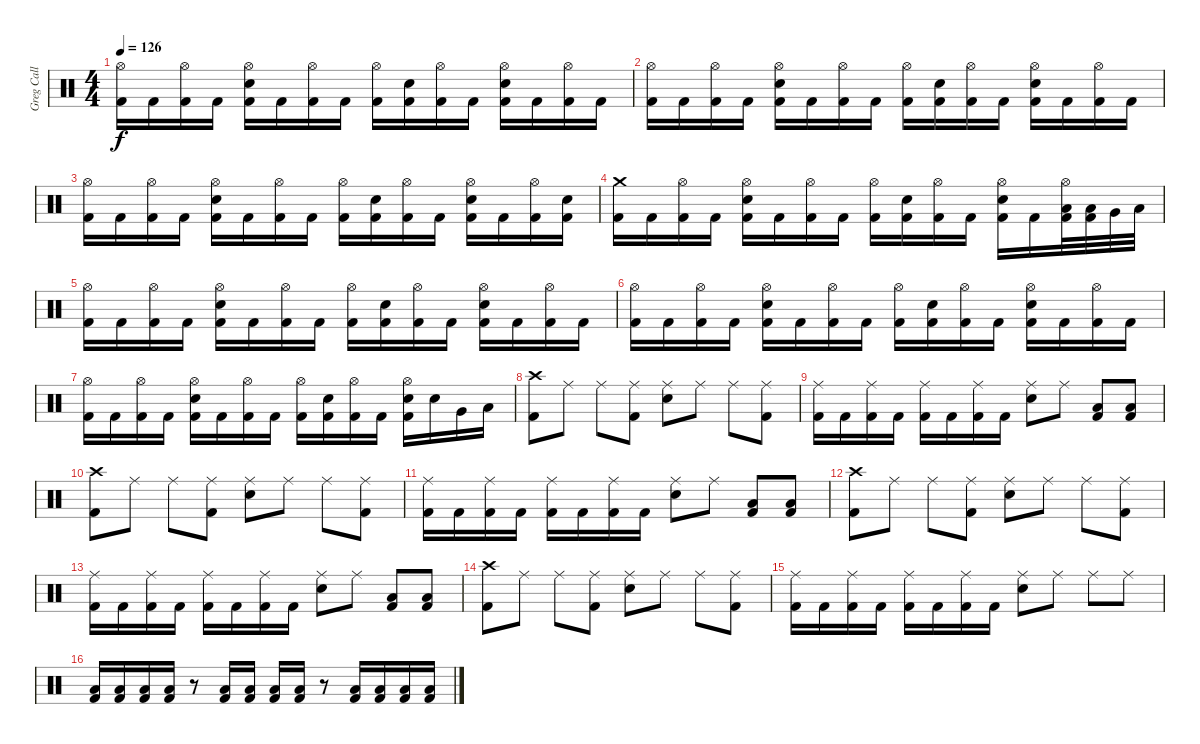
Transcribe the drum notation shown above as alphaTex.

\track ("Greg Call (Drums)" "Greg Call ") {instrument percussion}
\staff {score}
\articulation defaults
\ts (4 4)
\tempo 126
\clef neutral
\ks c
("Hi-Hat (open)" "Kick (hit) 2").16{dy f} "Kick (hit) 2".16 ("Hi-Hat (open)" "Kick (hit) 2").16 "Kick (hit) 2".16 ("Hi-Hat (open)" "Snare (hit) 2" "Kick (hit) 2").16 "Kick (hit) 2".16 ("Hi-Hat (open)" "Kick (hit) 2").16 "Kick (hit) 2".16 ("Hi-Hat (open)" "Kick (hit) 2").16 ("Snare (hit) 2" "Kick (hit) 2").16 ("Hi-Hat (open)" "Kick (hit) 2").16 "Kick (hit) 2".16 ("Hi-Hat (open)" "Snare (hit) 2" "Kick (hit) 2").16 "Kick (hit) 2".16 ("Hi-Hat (open)" "Kick (hit) 2").16 "Kick (hit) 2".16 |
("Hi-Hat (open)" "Kick (hit) 2").16 "Kick (hit) 2".16 ("Hi-Hat (open)" "Kick (hit) 2").16 "Kick (hit) 2".16 ("Hi-Hat (open)" "Snare (hit) 2" "Kick (hit) 2").16 "Kick (hit) 2".16 ("Hi-Hat (open)" "Kick (hit) 2").16 "Kick (hit) 2".16 ("Hi-Hat (open)" "Kick (hit) 2").16 ("Snare (hit) 2" "Kick (hit) 2").16 ("Hi-Hat (open)" "Kick (hit) 2").16 "Kick (hit) 2".16 ("Hi-Hat (open)" "Snare (hit) 2" "Kick (hit) 2").16 "Kick (hit) 2".16 ("Hi-Hat (open)" "Kick (hit) 2").16 "Kick (hit) 2".16 |
("Hi-Hat (open)" "Kick (hit) 2").16 "Kick (hit) 2".16 ("Hi-Hat (open)" "Kick (hit) 2").16 "Kick (hit) 2".16 ("Hi-Hat (open)" "Snare (hit) 2" "Kick (hit) 2").16 "Kick (hit) 2".16 ("Hi-Hat (open)" "Kick (hit) 2").16 "Kick (hit) 2".16 ("Hi-Hat (open)" "Kick (hit) 2").16 ("Snare (hit) 2" "Kick (hit) 2").16 ("Hi-Hat (open)" "Kick (hit) 2").16 "Kick (hit) 2".16 ("Hi-Hat (open)" "Snare (hit) 2" "Kick (hit) 2").16 "Kick (hit) 2".16 ("Hi-Hat (open)" "Kick (hit) 2").16 ("Snare (hit) 2" "Kick (hit) 2").16 |
("Crash medium (hit)" "Kick (hit) 2").16 "Kick (hit) 2".16 ("Hi-Hat (open)" "Kick (hit) 2").16 "Kick (hit) 2".16 ("Hi-Hat (open)" "Snare (hit) 2" "Kick (hit) 2").16 "Kick (hit) 2".16 ("Hi-Hat (open)" "Kick (hit) 2").16 "Kick (hit) 2".16 ("Hi-Hat (open)" "Kick (hit) 2").16 ("Snare (hit) 2" "Kick (hit) 2").16 ("Hi-Hat (open)" "Kick (hit) 2").16 "Kick (hit) 2".16 ("Hi-Hat (open)" "Snare (hit) 2" "Kick (hit) 2").16 "Kick (hit) 2".16 ("Hi-Hat (open)" "Low Tom (hit)" "Kick (hit) 2").32 ("Low Tom (hit)" "Kick (hit) 2").32 "Very Low Tom (hit)".32 "Low Floor Tom (hit)".32 |
("Hi-Hat (open)" "Kick (hit) 2").16 "Kick (hit) 2".16 ("Hi-Hat (open)" "Kick (hit) 2").16 "Kick (hit) 2".16 ("Hi-Hat (open)" "Snare (hit) 2" "Kick (hit) 2").16 "Kick (hit) 2".16 ("Hi-Hat (open)" "Kick (hit) 2").16 "Kick (hit) 2".16 ("Hi-Hat (open)" "Kick (hit) 2").16 ("Snare (hit) 2" "Kick (hit) 2").16 ("Hi-Hat (open)" "Kick (hit) 2").16 "Kick (hit) 2".16 ("Hi-Hat (open)" "Snare (hit) 2" "Kick (hit) 2").16 "Kick (hit) 2".16 ("Hi-Hat (open)" "Kick (hit) 2").16 "Kick (hit) 2".16 |
("Hi-Hat (open)" "Kick (hit) 2").16 "Kick (hit) 2".16 ("Hi-Hat (open)" "Kick (hit) 2").16 "Kick (hit) 2".16 ("Hi-Hat (open)" "Snare (hit) 2" "Kick (hit) 2").16 "Kick (hit) 2".16 ("Hi-Hat (open)" "Kick (hit) 2").16 "Kick (hit) 2".16 ("Hi-Hat (open)" "Kick (hit) 2").16 ("Snare (hit) 2" "Kick (hit) 2").16 ("Hi-Hat (open)" "Kick (hit) 2").16 "Kick (hit) 2".16 ("Hi-Hat (open)" "Snare (hit) 2" "Kick (hit) 2").16 "Kick (hit) 2".16 ("Hi-Hat (open)" "Kick (hit) 2").16 "Kick (hit) 2".16 |
("Hi-Hat (open)" "Kick (hit) 2").16 "Kick (hit) 2".16 ("Hi-Hat (open)" "Kick (hit) 2").16 "Kick (hit) 2".16 ("Hi-Hat (open)" "Snare (hit) 2" "Kick (hit) 2").16 "Kick (hit) 2".16 ("Hi-Hat (open)" "Kick (hit) 2").16 "Kick (hit) 2".16 ("Hi-Hat (open)" "Kick (hit) 2").16 ("Snare (hit) 2" "Kick (hit) 2").16 ("Hi-Hat (open)" "Kick (hit) 2").16 "Kick (hit) 2".16 ("Hi-Hat (open)" "Snare (hit) 2" "Kick (hit) 2").16 "Snare (hit) 2".16 "Very Low Tom (hit)".16 "Low Floor Tom (hit)".16 |
("Crash high (hit)" "Kick (hit) 2").8 "Ride (middle)".8 "Ride (middle)".8 ("Ride (middle)" "Kick (hit) 2").8 ("Ride (middle)" "Snare (hit) 2").8 "Ride (middle)".8 "Ride (middle)".8 ("Ride (middle)" "Kick (hit) 2").8 |
("Ride (middle)" "Kick (hit) 2").16 "Kick (hit) 2".16 ("Ride (middle)" "Kick (hit) 2").16 "Kick (hit) 2".16 ("Ride (middle)" "Kick (hit) 2").16 "Kick (hit) 2".16 ("Ride (middle)" "Kick (hit) 2").16 "Kick (hit) 2".16 ("Ride (middle)" "Snare (hit) 2").8 "Ride (middle)".8 ("Low Floor Tom (hit)" "Kick (hit) 2").8 ("Low Floor Tom (hit)" "Kick (hit) 2").8 |
("Crash high (hit)" "Kick (hit) 2").8 "Ride (middle)".8 "Ride (middle)".8 ("Ride (middle)" "Kick (hit) 2").8 ("Ride (middle)" "Snare (hit) 2").8 "Ride (middle)".8 "Ride (middle)".8 ("Ride (middle)" "Kick (hit) 2").8 |
("Ride (middle)" "Kick (hit) 2").16 "Kick (hit) 2".16 ("Ride (middle)" "Kick (hit) 2").16 "Kick (hit) 2".16 ("Ride (middle)" "Kick (hit) 2").16 "Kick (hit) 2".16 ("Ride (middle)" "Kick (hit) 2").16 "Kick (hit) 2".16 ("Ride (middle)" "Snare (hit) 2").8 "Ride (middle)".8 ("Low Floor Tom (hit)" "Kick (hit) 2").8 ("Low Floor Tom (hit)" "Kick (hit) 2").8 |
("Crash high (hit)" "Kick (hit) 2").8 "Ride (middle)".8 "Ride (middle)".8 ("Ride (middle)" "Kick (hit) 2").8 ("Ride (middle)" "Snare (hit) 2").8 "Ride (middle)".8 "Ride (middle)".8 ("Ride (middle)" "Kick (hit) 2").8 |
("Ride (middle)" "Kick (hit) 2").16 "Kick (hit) 2".16 ("Ride (middle)" "Kick (hit) 2").16 "Kick (hit) 2".16 ("Ride (middle)" "Kick (hit) 2").16 "Kick (hit) 2".16 ("Ride (middle)" "Kick (hit) 2").16 "Kick (hit) 2".16 ("Ride (middle)" "Snare (hit) 2").8 "Ride (middle)".8 ("Low Floor Tom (hit)" "Kick (hit) 2").8 ("Low Floor Tom (hit)" "Kick (hit) 2").8 |
("Crash high (hit)" "Kick (hit) 2").8 "Ride (middle)".8 "Ride (middle)".8 ("Ride (middle)" "Kick (hit) 2").8 ("Ride (middle)" "Snare (hit) 2").8 "Ride (middle)".8 "Ride (middle)".8 ("Ride (middle)" "Kick (hit) 2").8 |
("Ride (middle)" "Kick (hit) 2").16 "Kick (hit) 2".16 ("Ride (middle)" "Kick (hit) 2").16 "Kick (hit) 2".16 ("Ride (middle)" "Kick (hit) 2").16 "Kick (hit) 2".16 ("Ride (middle)" "Kick (hit) 2").16 "Kick (hit) 2".16 ("Ride (middle)" "Snare (hit) 2").8 "Ride (middle)".8 "Ride (middle)".8 "Ride (middle)".8 |
("Low Floor Tom (hit)" "Kick (hit) 2").16{volume 14} ("Low Floor Tom (hit)" "Kick (hit) 2").16 ("Low Floor Tom (hit)" "Kick (hit) 2").16 ("Low Floor Tom (hit)" "Kick (hit) 2").16 r.8 ("Low Floor Tom (hit)" "Kick (hit) 2").16 ("Low Floor Tom (hit)" "Kick (hit) 2").16 ("Low Floor Tom (hit)" "Kick (hit) 2").16 ("Low Floor Tom (hit)" "Kick (hit) 2").16 r.8 ("Low Floor Tom (hit)" "Kick (hit) 2").16 ("Low Floor Tom (hit)" "Kick (hit) 2").16 ("Low Floor Tom (hit)" "Kick (hit) 2").16 ("Low Floor Tom (hit)" "Kick (hit) 2").16
